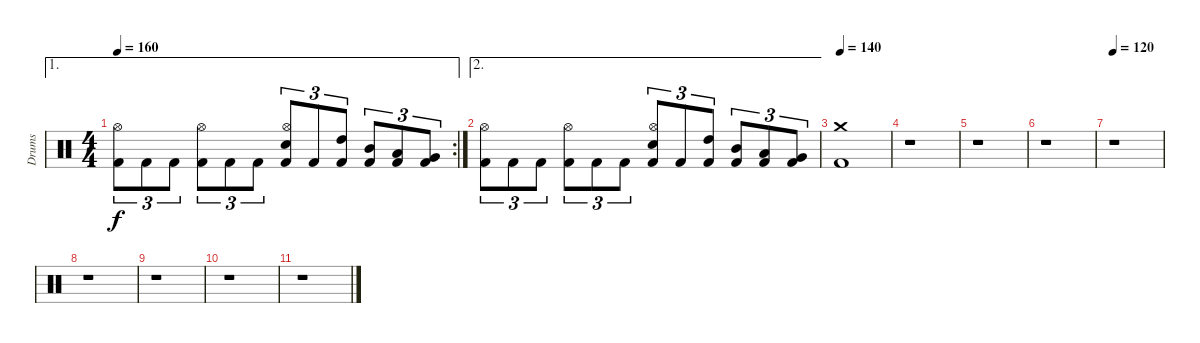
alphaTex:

\track ("Drums" "Drums") {instrument percussion}
\staff {score}
\articulation defaults
\ae 1
\rc 2
\ts (4 4)
\tempo 160
\clef neutral
\ks c
("Kick (hit) 2" "Hi-Hat (open)").8{tu (3 2) dy f} "Kick (hit) 2".8{tu (3 2)} "Kick (hit) 2".8{tu (3 2)} ("Kick (hit) 2" "Hi-Hat (open)").8{tu (3 2)} "Kick (hit) 2".8{tu (3 2)} "Kick (hit) 2".8{tu (3 2)} ("Kick (hit) 2" "Electric Snare (hit)" "Hi-Hat (open)").8{tu (3 2)} "Kick (hit) 2".8{tu (3 2)} ("Kick (hit) 2" "High Tom (hit)").8{tu (3 2)} ("Kick (hit) 2" "Mid Tom (hit)").8{tu (3 2)} ("Kick (hit) 2" "Low Tom (hit)").8{tu (3 2)} ("Kick (hit) 2" "Very Low Tom (hit)").8{tu (3 2)} |
\ae 2
("Kick (hit) 2" "Hi-Hat (open)").8{tu (3 2)} "Kick (hit) 2".8{tu (3 2)} "Kick (hit) 2".8{tu (3 2)} ("Kick (hit) 2" "Hi-Hat (open)").8{tu (3 2)} "Kick (hit) 2".8{tu (3 2)} "Kick (hit) 2".8{tu (3 2)} ("Kick (hit) 2" "Electric Snare (hit)" "Hi-Hat (open)").8{tu (3 2)} "Kick (hit) 2".8{tu (3 2)} ("Kick (hit) 2" "High Tom (hit)").8{tu (3 2)} ("Kick (hit) 2" "Mid Tom (hit)").8{tu (3 2)} ("Kick (hit) 2" "Low Tom (hit)").8{tu (3 2)} ("Kick (hit) 2" "Very Low Tom (hit)").8{tu (3 2)} |
\tempo 140
("Kick (hit) 2" "Crash medium (hit)").1 |
r.1 |
r.1 |
r.1 |
\tempo 120
r.1 |
r.1 |
r.1 |
r.1 |
r.1
